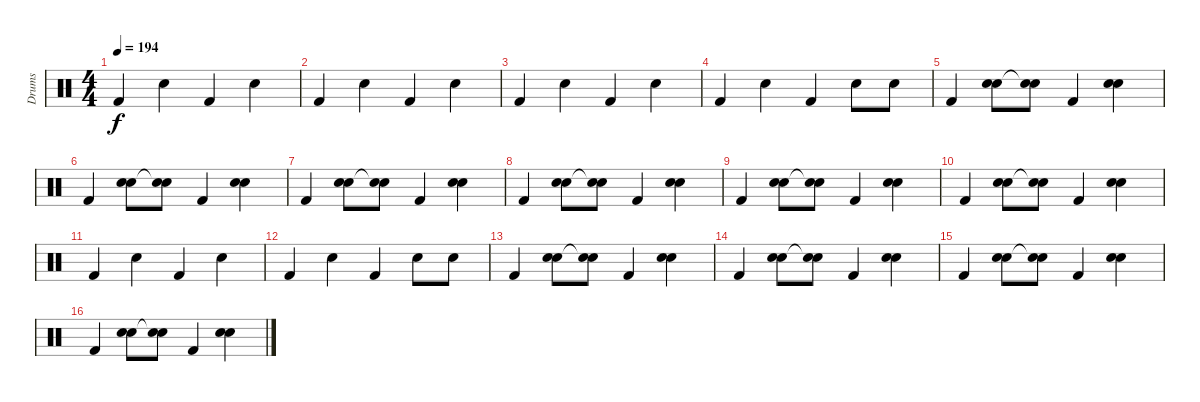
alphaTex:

\track ("Drums" "Drums") {instrument percussion}
\staff {score}
\articulation defaults
\ts (4 4)
\tempo 194
\clef neutral
\ks c "Kick (hit) 2".4{dy f} "Snare (hit) 2".4 "Kick (hit) 2".4 "Snare (hit) 2".4
|
"Kick (hit) 2".4 "Snare (hit) 2".4 "Kick (hit) 2".4 "Snare (hit) 2".4 |
"Kick (hit) 2".4 "Snare (hit) 2".4 "Kick (hit) 2".4 "Snare (hit) 2".4 |
"Kick (hit) 2".4 "Snare (hit) 2".4 "Kick (hit) 2".4 "Snare (hit) 2".8 "Snare (hit) 2".8 |
"Kick (hit) 2".4 ("Snare (hit) 2" "Hand Clap (hit)").8 ("Snare (hit)"{t} "Hand Clap (hit)").8 "Kick (hit) 2".4 ("Snare (hit) 2" "Hand Clap (hit)").4 |
"Kick (hit) 2".4 ("Snare (hit) 2" "Hand Clap (hit)").8 ("Snare (hit)"{t} "Hand Clap (hit)").8 "Kick (hit) 2".4 ("Snare (hit) 2" "Hand Clap (hit)").4 |
"Kick (hit) 2".4 ("Snare (hit) 2" "Hand Clap (hit)").8 ("Snare (hit)"{t} "Hand Clap (hit)").8 "Kick (hit) 2".4 ("Snare (hit) 2" "Hand Clap (hit)").4 |
"Kick (hit) 2".4 ("Snare (hit) 2" "Hand Clap (hit)").8 ("Snare (hit)"{t} "Hand Clap (hit)").8 "Kick (hit) 2".4 ("Snare (hit) 2" "Hand Clap (hit)").4 |
"Kick (hit) 2".4 ("Snare (hit) 2" "Hand Clap (hit)").8 ("Snare (hit)"{t} "Hand Clap (hit)").8 "Kick (hit) 2".4 ("Snare (hit) 2" "Hand Clap (hit)").4 |
"Kick (hit) 2".4 ("Snare (hit) 2" "Hand Clap (hit)").8 ("Snare (hit)"{t} "Hand Clap (hit)").8 "Kick (hit) 2".4 ("Snare (hit) 2" "Hand Clap (hit)").4 |
"Kick (hit) 2".4 "Snare (hit) 2".4 "Kick (hit) 2".4 "Snare (hit) 2".4 |
"Kick (hit) 2".4 "Snare (hit) 2".4 "Kick (hit) 2".4 "Snare (hit) 2".8 "Snare (hit) 2".8 |
"Kick (hit) 2".4 ("Snare (hit) 2" "Hand Clap (hit)").8 ("Snare (hit)"{t} "Hand Clap (hit)").8 "Kick (hit) 2".4 ("Snare (hit) 2" "Hand Clap (hit)").4 |
"Kick (hit) 2".4 ("Snare (hit) 2" "Hand Clap (hit)").8 ("Snare (hit)"{t} "Hand Clap (hit)").8 "Kick (hit) 2".4 ("Snare (hit) 2" "Hand Clap (hit)").4 |
"Kick (hit) 2".4 ("Snare (hit) 2" "Hand Clap (hit)").8 ("Snare (hit)"{t} "Hand Clap (hit)").8 "Kick (hit) 2".4 ("Snare (hit) 2" "Hand Clap (hit)").4 |
"Kick (hit) 2".4 ("Snare (hit) 2" "Hand Clap (hit)").8 ("Snare (hit)"{t} "Hand Clap (hit)").8 "Kick (hit) 2".4 ("Snare (hit) 2" "Hand Clap (hit)").4
